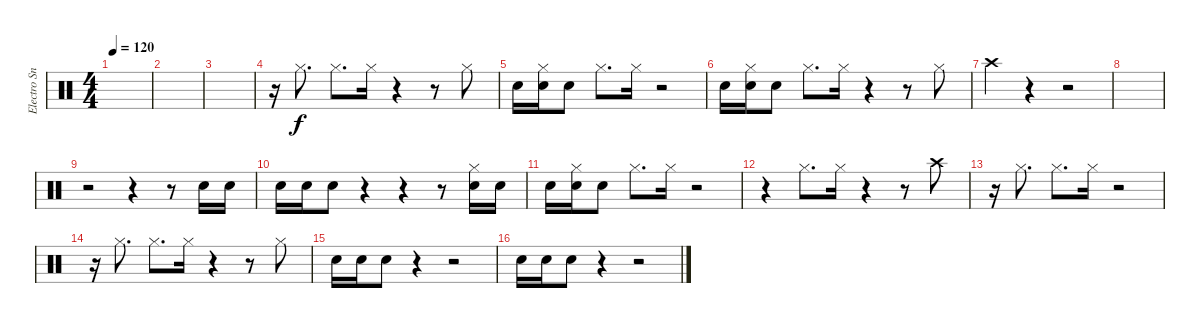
\track ("Electro Snare" "Electro Sn") {instrument percussion}
\staff {score}
\articulation defaults
\ts (4 4)
\tempo 120
\clef neutral
\ks c
|
|
|
r.16 "Hi-Hat (closed)".8{d} "Hi-Hat (closed)".8{d} "Hi-Hat (closed)".16 r.4 r.8 "Hi-Hat (closed)".8 |
"Electric Snare (hit)".16 ("Hi-Hat (closed)" "Electric Snare (hit)").16 "Electric Snare (hit)".8 "Hi-Hat (closed)".8{d} "Hi-Hat (closed)".16 r.2 |
"Electric Snare (hit)".16 ("Hi-Hat (closed)" "Electric Snare (hit)").16 "Electric Snare (hit)".8 "Hi-Hat (closed)".8{d} "Hi-Hat (closed)".16 r.4 r.8 "Hi-Hat (closed)".8 |
"Crash high (hit)".4 r.4 r.2 |
|
r.2 r.4 r.8 "Electric Snare (hit)".16 "Electric Snare (hit)".16 |
"Electric Snare (hit)".16 "Electric Snare (hit)".16 "Electric Snare (hit)".8 r.4 r.4 r.8 ("Hi-Hat (closed)" "Electric Snare (hit)").16 "Electric Snare (hit)".16 |
"Electric Snare (hit)".16 ("Hi-Hat (closed)" "Electric Snare (hit)").16 "Electric Snare (hit)".8 "Hi-Hat (closed)".8{d} "Hi-Hat (closed)".16 r.2 |
r.4 "Hi-Hat (closed)".8{d} "Hi-Hat (closed)".16 r.4 r.8 "Crash high (hit)".8 |
r.16 "Hi-Hat (closed)".8{d} "Hi-Hat (closed)".8{d} "Hi-Hat (closed)".16 r.2 |
r.16 "Hi-Hat (closed)".8{d} "Hi-Hat (closed)".8{d} "Hi-Hat (closed)".16 r.4 r.8 "Hi-Hat (closed)".8 |
"Electric Snare (hit)".16 "Electric Snare (hit)".16 "Electric Snare (hit)".8 r.4 r.2 |
"Electric Snare (hit)".16 "Electric Snare (hit)".16 "Electric Snare (hit)".8 r.4 r.2
